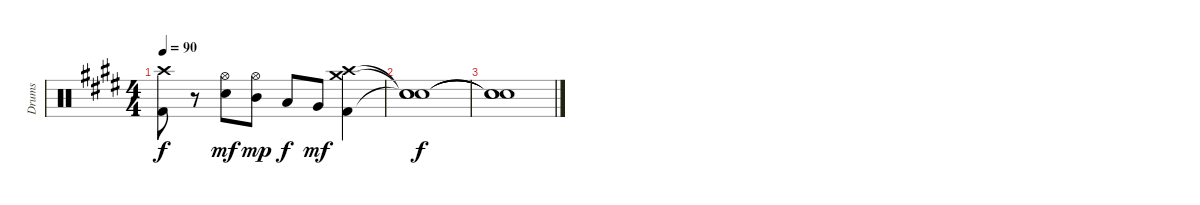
\track ("Drums" "Drums") {instrument percussion}
\staff {score}
\articulation defaults
\ts (4 4)
\tempo 90
\clef neutral
\ks e
("Crash high (hit)" "Kick (hit) 2").8{dy f} r.8 ("Hi-Hat (open)" "Electric Snare (hit)").8{dy mf} ("Hi-Hat (open)" "Mid Tom (hit)").8{dy mp} "Low Tom (hit)".8{dy f} "Very Low Tom (hit)".8{dy mf} ("Crash high (hit)" "Crash medium (hit)" "Kick (hit) 2").4 |
("Snare (hit)"{t} "Snare (hit)"{t} "Snare (hit)"{t}).1{dy f} |
("Snare (hit)"{t} "Snare (hit)"{t} "Snare (hit)"{t}).1
